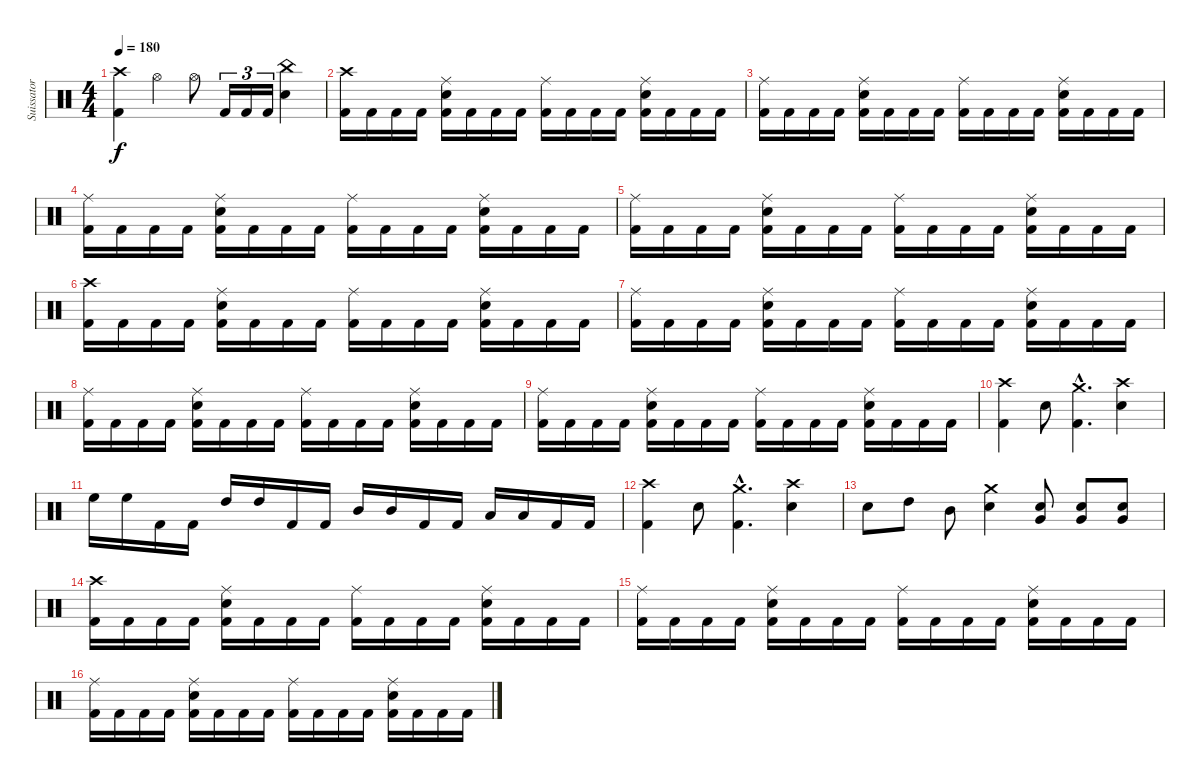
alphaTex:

\track ("Suissator" "Suissator") {instrument percussion}
\staff {score}
\articulation defaults
\ts (4 4)
\tempo 180
\clef neutral
\ks c
("Kick (hit) 2" "Crash high (hit)").4{dy f} "Hi-Hat (open)".4 "Hi-Hat (open)".8 "Kick (hit) 2".16{tu (3 2)} "Kick (hit) 2".16{tu (3 2)} "Kick (hit) 2".16{tu (3 2)} ("Electric Snare (hit)" "China (hit)").4 |
("Kick (hit) 2" "Crash high (hit)").16 "Kick (hit) 2".16 "Kick (hit) 2".16 "Kick (hit) 2".16 ("Kick (hit) 2" "Electric Snare (hit)" "Ride (middle)").16 "Kick (hit) 2".16 "Kick (hit) 2".16 "Kick (hit) 2".16 ("Kick (hit) 2" "Ride (middle)").16 "Kick (hit) 2".16 "Kick (hit) 2".16 "Kick (hit) 2".16 ("Kick (hit) 2" "Electric Snare (hit)" "Ride (middle)").16 "Kick (hit) 2".16 "Kick (hit) 2".16 "Kick (hit) 2".16 |
("Kick (hit) 2" "Ride (middle)").16 "Kick (hit) 2".16 "Kick (hit) 2".16 "Kick (hit) 2".16 ("Kick (hit) 2" "Electric Snare (hit)" "Ride (middle)").16 "Kick (hit) 2".16 "Kick (hit) 2".16 "Kick (hit) 2".16 ("Kick (hit) 2" "Ride (middle)").16 "Kick (hit) 2".16 "Kick (hit) 2".16 "Kick (hit) 2".16 ("Kick (hit) 2" "Electric Snare (hit)" "Ride (middle)").16 "Kick (hit) 2".16 "Kick (hit) 2".16 "Kick (hit) 2".16 |
("Kick (hit) 2" "Ride (middle)").16 "Kick (hit) 2".16 "Kick (hit) 2".16 "Kick (hit) 2".16 ("Kick (hit) 2" "Electric Snare (hit)" "Ride (middle)").16 "Kick (hit) 2".16 "Kick (hit) 2".16 "Kick (hit) 2".16 ("Kick (hit) 2" "Ride (middle)").16 "Kick (hit) 2".16 "Kick (hit) 2".16 "Kick (hit) 2".16 ("Kick (hit) 2" "Electric Snare (hit)" "Ride (middle)").16 "Kick (hit) 2".16 "Kick (hit) 2".16 "Kick (hit) 2".16 |
("Kick (hit) 2" "Ride (middle)").16 "Kick (hit) 2".16 "Kick (hit) 2".16 "Kick (hit) 2".16 ("Kick (hit) 2" "Electric Snare (hit)" "Ride (middle)").16 "Kick (hit) 2".16 "Kick (hit) 2".16 "Kick (hit) 2".16 ("Kick (hit) 2" "Ride (middle)").16 "Kick (hit) 2".16 "Kick (hit) 2".16 "Kick (hit) 2".16 ("Kick (hit) 2" "Electric Snare (hit)" "Ride (middle)").16 "Kick (hit) 2".16 "Kick (hit) 2".16 "Kick (hit) 2".16 |
("Kick (hit) 2" "Crash high (hit)").16 "Kick (hit) 2".16 "Kick (hit) 2".16 "Kick (hit) 2".16 ("Kick (hit) 2" "Electric Snare (hit)" "Ride (middle)").16 "Kick (hit) 2".16 "Kick (hit) 2".16 "Kick (hit) 2".16 ("Kick (hit) 2" "Ride (middle)").16 "Kick (hit) 2".16 "Kick (hit) 2".16 "Kick (hit) 2".16 ("Kick (hit) 2" "Electric Snare (hit)" "Ride (middle)").16 "Kick (hit) 2".16 "Kick (hit) 2".16 "Kick (hit) 2".16 |
("Kick (hit) 2" "Ride (middle)").16 "Kick (hit) 2".16 "Kick (hit) 2".16 "Kick (hit) 2".16 ("Kick (hit) 2" "Electric Snare (hit)" "Ride (middle)").16 "Kick (hit) 2".16 "Kick (hit) 2".16 "Kick (hit) 2".16 ("Kick (hit) 2" "Ride (middle)").16 "Kick (hit) 2".16 "Kick (hit) 2".16 "Kick (hit) 2".16 ("Kick (hit) 2" "Electric Snare (hit)" "Ride (middle)").16 "Kick (hit) 2".16 "Kick (hit) 2".16 "Kick (hit) 2".16 |
("Kick (hit) 2" "Ride (middle)").16 "Kick (hit) 2".16 "Kick (hit) 2".16 "Kick (hit) 2".16 ("Kick (hit) 2" "Electric Snare (hit)" "Ride (middle)").16 "Kick (hit) 2".16 "Kick (hit) 2".16 "Kick (hit) 2".16 ("Kick (hit) 2" "Ride (middle)").16 "Kick (hit) 2".16 "Kick (hit) 2".16 "Kick (hit) 2".16 ("Kick (hit) 2" "Electric Snare (hit)" "Ride (middle)").16 "Kick (hit) 2".16 "Kick (hit) 2".16 "Kick (hit) 2".16 |
("Kick (hit) 2" "Ride (middle)").16 "Kick (hit) 2".16 "Kick (hit) 2".16 "Kick (hit) 2".16 ("Kick (hit) 2" "Electric Snare (hit)" "Ride (middle)").16 "Kick (hit) 2".16 "Kick (hit) 2".16 "Kick (hit) 2".16 ("Kick (hit) 2" "Ride (middle)").16 "Kick (hit) 2".16 "Kick (hit) 2".16 "Kick (hit) 2".16 ("Kick (hit) 2" "Electric Snare (hit)" "Ride (middle)").16 "Kick (hit) 2".16 "Kick (hit) 2".16 "Kick (hit) 2".16 |
("Kick (hit) 2" "Crash high (hit)").4 "Electric Snare (hit)".8 ("Kick (hit) 2"{hac} "Crash medium (hit)"{hac}).4{d} ("Electric Snare (hit)" "Crash high (hit)").4 |
"High Floor Tom (hit)".16 "High Floor Tom (hit)".16 "Kick (hit) 2".16 "Kick (hit) 2".16 "High Tom (hit)".16 "High Tom (hit)".16 "Kick (hit) 2".16 "Kick (hit) 2".16 "Mid Tom (hit)".16 "Mid Tom (hit)".16 "Kick (hit) 2".16 "Kick (hit) 2".16 "Low Tom (hit)".16 "Low Tom (hit)".16 "Kick (hit) 2".16 "Kick (hit) 2".16 |
("Kick (hit) 2" "Crash high (hit)").4 "Electric Snare (hit)".8 ("Kick (hit) 2"{hac} "Crash medium (hit)"{hac}).4{d} ("Electric Snare (hit)" "Crash high (hit)").4 |
"Electric Snare (hit)".8 "High Tom (hit)".8 "Mid Tom (hit)".8 ("Electric Snare (hit)" "Crash medium (hit)").4 ("Very Low Tom (hit)" "Electric Snare (hit)").8 ("Very Low Tom (hit)" "Electric Snare (hit)").8 ("Very Low Tom (hit)" "Electric Snare (hit)").8 |
("Kick (hit) 2" "Crash high (hit)").16 "Kick (hit) 2".16 "Kick (hit) 2".16 "Kick (hit) 2".16 ("Kick (hit) 2" "Electric Snare (hit)" "Ride (middle)").16 "Kick (hit) 2".16 "Kick (hit) 2".16 "Kick (hit) 2".16 ("Kick (hit) 2" "Ride (middle)").16 "Kick (hit) 2".16 "Kick (hit) 2".16 "Kick (hit) 2".16 ("Kick (hit) 2" "Electric Snare (hit)" "Ride (middle)").16 "Kick (hit) 2".16 "Kick (hit) 2".16 "Kick (hit) 2".16 |
("Kick (hit) 2" "Ride (middle)").16 "Kick (hit) 2".16 "Kick (hit) 2".16 "Kick (hit) 2".16 ("Kick (hit) 2" "Electric Snare (hit)" "Ride (middle)").16 "Kick (hit) 2".16 "Kick (hit) 2".16 "Kick (hit) 2".16 ("Kick (hit) 2" "Ride (middle)").16 "Kick (hit) 2".16 "Kick (hit) 2".16 "Kick (hit) 2".16 ("Kick (hit) 2" "Electric Snare (hit)" "Ride (middle)").16 "Kick (hit) 2".16 "Kick (hit) 2".16 "Kick (hit) 2".16 |
("Kick (hit) 2" "Ride (middle)").16 "Kick (hit) 2".16 "Kick (hit) 2".16 "Kick (hit) 2".16 ("Kick (hit) 2" "Electric Snare (hit)" "Ride (middle)").16 "Kick (hit) 2".16 "Kick (hit) 2".16 "Kick (hit) 2".16 ("Kick (hit) 2" "Ride (middle)").16 "Kick (hit) 2".16 "Kick (hit) 2".16 "Kick (hit) 2".16 ("Kick (hit) 2" "Electric Snare (hit)" "Ride (middle)").16 "Kick (hit) 2".16 "Kick (hit) 2".16 "Kick (hit) 2".16
